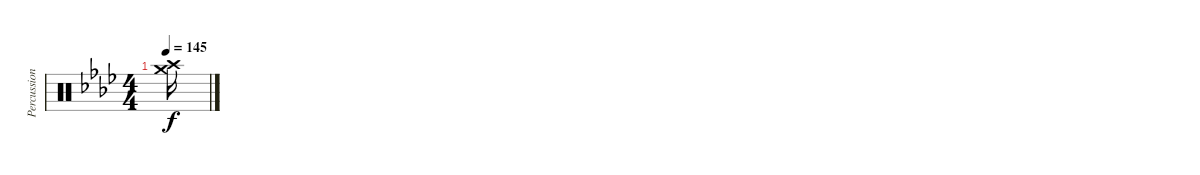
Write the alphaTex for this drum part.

\track ("Percussion" "Percussion") {instrument percussion}
\staff {score}
\articulation defaults
\ts (4 4)
\tempo 145
\clef neutral
\ks ab
("Crash high (hit)" "Crash medium (hit)").16{dy f}
